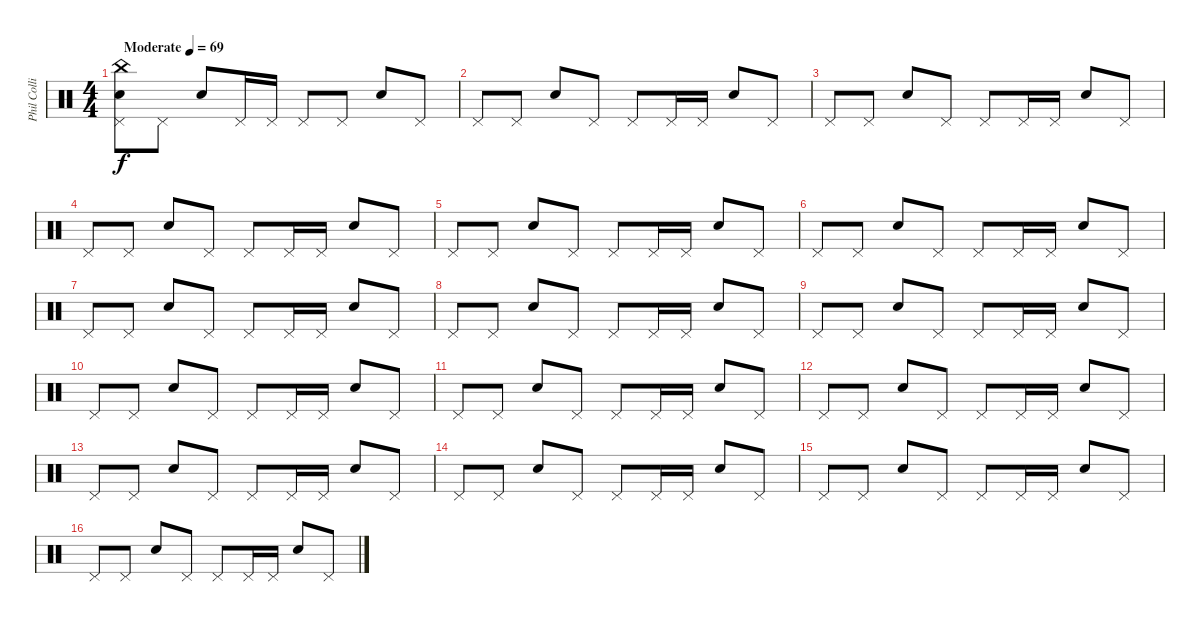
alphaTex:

\track ("Phil Collins" "Phil Colli") {instrument percussion}
\staff {score}
\articulation defaults
\ts (4 4)
\tempo (69 "Moderate")
\clef neutral
\ks c
("China (hit)" "Snare (hit) 2" "Pedal Hi-Hat (hit)").8{dy f} "Pedal Hi-Hat (hit)".8 "Snare (hit) 2".8 "Pedal Hi-Hat (hit)".16 "Pedal Hi-Hat (hit)".16 "Pedal Hi-Hat (hit)".8 "Pedal Hi-Hat (hit)".8 "Snare (hit) 2".8 "Pedal Hi-Hat (hit)".8 |
"Pedal Hi-Hat (hit)".8 "Pedal Hi-Hat (hit)".8 "Snare (hit) 2".8 "Pedal Hi-Hat (hit)".8 "Pedal Hi-Hat (hit)".8 "Pedal Hi-Hat (hit)".16 "Pedal Hi-Hat (hit)".16 "Snare (hit) 2".8 "Pedal Hi-Hat (hit)".8 |
"Pedal Hi-Hat (hit)".8 "Pedal Hi-Hat (hit)".8 "Snare (hit) 2".8 "Pedal Hi-Hat (hit)".8 "Pedal Hi-Hat (hit)".8 "Pedal Hi-Hat (hit)".16 "Pedal Hi-Hat (hit)".16 "Snare (hit) 2".8 "Pedal Hi-Hat (hit)".8 |
"Pedal Hi-Hat (hit)".8 "Pedal Hi-Hat (hit)".8 "Snare (hit) 2".8 "Pedal Hi-Hat (hit)".8 "Pedal Hi-Hat (hit)".8 "Pedal Hi-Hat (hit)".16 "Pedal Hi-Hat (hit)".16 "Snare (hit) 2".8 "Pedal Hi-Hat (hit)".8 |
"Pedal Hi-Hat (hit)".8 "Pedal Hi-Hat (hit)".8 "Snare (hit) 2".8 "Pedal Hi-Hat (hit)".8 "Pedal Hi-Hat (hit)".8 "Pedal Hi-Hat (hit)".16 "Pedal Hi-Hat (hit)".16 "Snare (hit) 2".8 "Pedal Hi-Hat (hit)".8 |
"Pedal Hi-Hat (hit)".8 "Pedal Hi-Hat (hit)".8 "Snare (hit) 2".8 "Pedal Hi-Hat (hit)".8 "Pedal Hi-Hat (hit)".8 "Pedal Hi-Hat (hit)".16 "Pedal Hi-Hat (hit)".16 "Snare (hit) 2".8 "Pedal Hi-Hat (hit)".8 |
"Pedal Hi-Hat (hit)".8 "Pedal Hi-Hat (hit)".8 "Snare (hit) 2".8 "Pedal Hi-Hat (hit)".8 "Pedal Hi-Hat (hit)".8 "Pedal Hi-Hat (hit)".16 "Pedal Hi-Hat (hit)".16 "Snare (hit) 2".8 "Pedal Hi-Hat (hit)".8 |
"Pedal Hi-Hat (hit)".8 "Pedal Hi-Hat (hit)".8 "Snare (hit) 2".8 "Pedal Hi-Hat (hit)".8 "Pedal Hi-Hat (hit)".8 "Pedal Hi-Hat (hit)".16 "Pedal Hi-Hat (hit)".16 "Snare (hit) 2".8 "Pedal Hi-Hat (hit)".8 |
"Pedal Hi-Hat (hit)".8 "Pedal Hi-Hat (hit)".8 "Snare (hit) 2".8 "Pedal Hi-Hat (hit)".8 "Pedal Hi-Hat (hit)".8 "Pedal Hi-Hat (hit)".16 "Pedal Hi-Hat (hit)".16 "Snare (hit) 2".8 "Pedal Hi-Hat (hit)".8 |
"Pedal Hi-Hat (hit)".8 "Pedal Hi-Hat (hit)".8 "Snare (hit) 2".8 "Pedal Hi-Hat (hit)".8 "Pedal Hi-Hat (hit)".8 "Pedal Hi-Hat (hit)".16 "Pedal Hi-Hat (hit)".16 "Snare (hit) 2".8 "Pedal Hi-Hat (hit)".8 |
"Pedal Hi-Hat (hit)".8 "Pedal Hi-Hat (hit)".8 "Snare (hit) 2".8 "Pedal Hi-Hat (hit)".8 "Pedal Hi-Hat (hit)".8 "Pedal Hi-Hat (hit)".16 "Pedal Hi-Hat (hit)".16 "Snare (hit) 2".8 "Pedal Hi-Hat (hit)".8 |
"Pedal Hi-Hat (hit)".8 "Pedal Hi-Hat (hit)".8 "Snare (hit) 2".8 "Pedal Hi-Hat (hit)".8 "Pedal Hi-Hat (hit)".8 "Pedal Hi-Hat (hit)".16 "Pedal Hi-Hat (hit)".16 "Snare (hit) 2".8 "Pedal Hi-Hat (hit)".8 |
"Pedal Hi-Hat (hit)".8 "Pedal Hi-Hat (hit)".8 "Snare (hit) 2".8 "Pedal Hi-Hat (hit)".8 "Pedal Hi-Hat (hit)".8 "Pedal Hi-Hat (hit)".16 "Pedal Hi-Hat (hit)".16 "Snare (hit) 2".8 "Pedal Hi-Hat (hit)".8 |
"Pedal Hi-Hat (hit)".8 "Pedal Hi-Hat (hit)".8 "Snare (hit) 2".8 "Pedal Hi-Hat (hit)".8 "Pedal Hi-Hat (hit)".8 "Pedal Hi-Hat (hit)".16 "Pedal Hi-Hat (hit)".16 "Snare (hit) 2".8 "Pedal Hi-Hat (hit)".8 |
"Pedal Hi-Hat (hit)".8 "Pedal Hi-Hat (hit)".8 "Snare (hit) 2".8 "Pedal Hi-Hat (hit)".8 "Pedal Hi-Hat (hit)".8 "Pedal Hi-Hat (hit)".16 "Pedal Hi-Hat (hit)".16 "Snare (hit) 2".8 "Pedal Hi-Hat (hit)".8 |
"Pedal Hi-Hat (hit)".8 "Pedal Hi-Hat (hit)".8 "Snare (hit) 2".8 "Pedal Hi-Hat (hit)".8 "Pedal Hi-Hat (hit)".8 "Pedal Hi-Hat (hit)".16 "Pedal Hi-Hat (hit)".16 "Snare (hit) 2".8 "Pedal Hi-Hat (hit)".8
